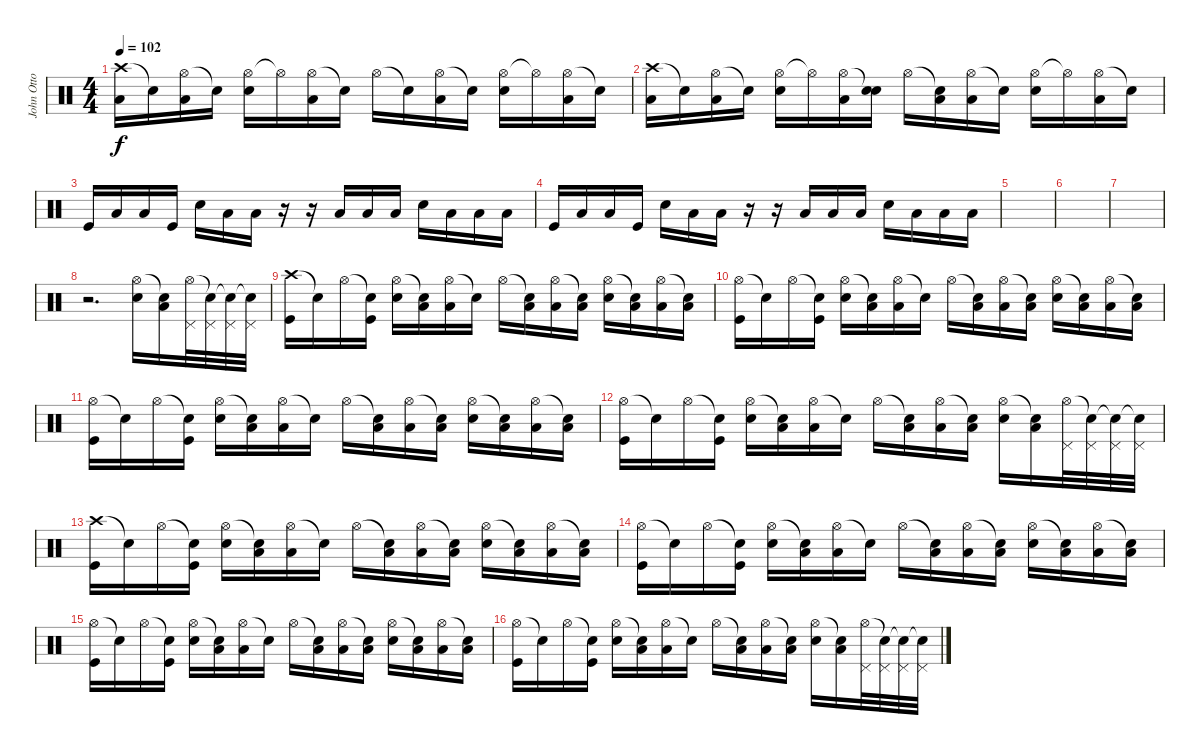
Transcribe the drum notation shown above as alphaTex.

\track ("John Otto (2nd Drums)" "John Otto ") {instrument percussion}
\staff {score}
\articulation defaults
\ts (4 4)
\tempo 102
\clef neutral
\ks c
("Crash high (hit)" "Low Tom (hit)").16{dy f} "Snare (hit)"{t}.16 ("Hi-Hat (open)" "Low Tom (hit)").16 "Snare (hit)"{t}.16 ("Hi-Hat (open)" "Snare (hit) 2").16 "Hi-Hat (open)"{t}.16 ("Hi-Hat (open)" "Low Tom (hit)").16 "Snare (hit)"{t}.16 "Hi-Hat (open)".16 "Snare (hit)"{t}.16 ("Hi-Hat (open)" "Low Tom (hit)").16 "Snare (hit)"{t}.16 ("Hi-Hat (open)" "Snare (hit) 2").16 "Hi-Hat (open)"{t}.16 ("Hi-Hat (open)" "Low Tom (hit)").16 "Snare (hit)"{t}.16 |
("Crash high (hit)" "Low Tom (hit)").16 "Snare (hit)"{t}.16 ("Hi-Hat (open)" "Low Tom (hit)").16 "Snare (hit)"{t}.16 ("Hi-Hat (open)" "Snare (hit) 2").16 "Hi-Hat (open)"{t}.16 ("Hi-Hat (open)" "Low Tom (hit)").16 ("Snare (hit)"{t} "Snare (hit) 2").16 "Hi-Hat (open)".16 ("Snare (hit)"{t} "Low Tom (hit)").16 ("Hi-Hat (open)" "Low Tom (hit)").16 "Snare (hit)"{t}.16 ("Hi-Hat (open)" "Snare (hit) 2").16 "Hi-Hat (open)"{t}.16 ("Hi-Hat (open)" "Low Tom (hit)").16 "Snare (hit)"{t}.16 |
"Kick (hit)".16 "Low Tom (hit)".16 "Low Tom (hit)".16 "Kick (hit)".16 "Snare (hit) 2".16 "Low Tom (hit)".16 "Low Tom (hit)".16 r.16 r.16 "Low Tom (hit)".16 "Low Tom (hit)".16 "Low Tom (hit)".16 "Snare (hit) 2".16 "Low Tom (hit)".16 "Low Tom (hit)".16 "Low Tom (hit)".16 |
"Kick (hit)".16 "Low Tom (hit)".16 "Low Tom (hit)".16 "Kick (hit)".16 "Snare (hit) 2".16 "Low Tom (hit)".16 "Low Tom (hit)".16 r.16 r.16 "Low Tom (hit)".16 "Low Tom (hit)".16 "Low Tom (hit)".16 "Snare (hit) 2".16 "Low Tom (hit)".16 "Low Tom (hit)".16 "Low Tom (hit)".16 |
|
|
|
r.2{d} ("Hi-Hat (open)" "Snare (hit) 2").16 ("Snare (hit)"{t} "Low Tom (hit)").16 ("Hi-Hat (open)" "Pedal Hi-Hat (hit)").32 ("Snare (hit)"{t} "Pedal Hi-Hat (hit)").32 ("Snare (hit)"{t} "Pedal Hi-Hat (hit)").32 ("Snare (hit)"{t} "Pedal Hi-Hat (hit)").32 |
("Crash high (hit)" "Kick (hit)").16 "Snare (hit)"{t}.16 "Hi-Hat (open)".16 ("Snare (hit)"{t} "Kick (hit)").16 ("Hi-Hat (open)" "Snare (hit) 2").16 ("Snare (hit)"{t} "Low Tom (hit)").16 ("Hi-Hat (open)" "Low Tom (hit)").16 "Snare (hit)"{t}.16 "Hi-Hat (open)".16 ("Snare (hit)"{t} "Low Tom (hit)").16 ("Hi-Hat (open)" "Low Tom (hit)").16 ("Snare (hit)"{t} "Low Tom (hit)").16 ("Hi-Hat (open)" "Snare (hit) 2").16 ("Snare (hit)"{t} "Low Tom (hit)").16 ("Hi-Hat (open)" "Low Tom (hit)").16 ("Snare (hit)"{t} "Low Tom (hit)").16 |
("Hi-Hat (open)" "Kick (hit)").16 "Snare (hit)"{t}.16 "Hi-Hat (open)".16 ("Snare (hit)"{t} "Kick (hit)").16 ("Hi-Hat (open)" "Snare (hit) 2").16 ("Snare (hit)"{t} "Low Tom (hit)").16 ("Hi-Hat (open)" "Low Tom (hit)").16 "Snare (hit)"{t}.16 "Hi-Hat (open)".16 ("Snare (hit)"{t} "Low Tom (hit)").16 ("Hi-Hat (open)" "Low Tom (hit)").16 ("Snare (hit)"{t} "Low Tom (hit)").16 ("Hi-Hat (open)" "Snare (hit) 2").16 ("Snare (hit)"{t} "Low Tom (hit)").16 ("Hi-Hat (open)" "Low Tom (hit)").16 ("Snare (hit)"{t} "Low Tom (hit)").16 |
("Hi-Hat (open)" "Kick (hit)").16 "Snare (hit)"{t}.16 "Hi-Hat (open)".16 ("Snare (hit)"{t} "Kick (hit)").16 ("Hi-Hat (open)" "Snare (hit) 2").16 ("Snare (hit)"{t} "Low Tom (hit)").16 ("Hi-Hat (open)" "Low Tom (hit)").16 "Snare (hit)"{t}.16 "Hi-Hat (open)".16 ("Snare (hit)"{t} "Low Tom (hit)").16 ("Hi-Hat (open)" "Low Tom (hit)").16 ("Snare (hit)"{t} "Low Tom (hit)").16 ("Hi-Hat (open)" "Snare (hit) 2").16 ("Snare (hit)"{t} "Low Tom (hit)").16 ("Hi-Hat (open)" "Low Tom (hit)").16 ("Snare (hit)"{t} "Low Tom (hit)").16 |
("Hi-Hat (open)" "Kick (hit)").16 "Snare (hit)"{t}.16 "Hi-Hat (open)".16 ("Snare (hit)"{t} "Kick (hit)").16 ("Hi-Hat (open)" "Snare (hit) 2").16 ("Snare (hit)"{t} "Low Tom (hit)").16 ("Hi-Hat (open)" "Low Tom (hit)").16 "Snare (hit)"{t}.16 "Hi-Hat (open)".16 ("Snare (hit)"{t} "Low Tom (hit)").16 ("Hi-Hat (open)" "Low Tom (hit)").16 ("Snare (hit)"{t} "Low Tom (hit)").16 ("Hi-Hat (open)" "Snare (hit) 2").16 ("Snare (hit)"{t} "Low Tom (hit)").16 ("Hi-Hat (open)" "Pedal Hi-Hat (hit)").32 ("Snare (hit)"{t} "Pedal Hi-Hat (hit)").32 ("Snare (hit)"{t} "Pedal Hi-Hat (hit)").32 ("Snare (hit)"{t} "Pedal Hi-Hat (hit)").32 |
("Crash high (hit)" "Kick (hit)").16 "Snare (hit)"{t}.16 "Hi-Hat (open)".16 ("Snare (hit)"{t} "Kick (hit)").16 ("Hi-Hat (open)" "Snare (hit) 2").16 ("Snare (hit)"{t} "Low Tom (hit)").16 ("Hi-Hat (open)" "Low Tom (hit)").16 "Snare (hit)"{t}.16 "Hi-Hat (open)".16 ("Snare (hit)"{t} "Low Tom (hit)").16 ("Hi-Hat (open)" "Low Tom (hit)").16 ("Snare (hit)"{t} "Low Tom (hit)").16 ("Hi-Hat (open)" "Snare (hit) 2").16 ("Snare (hit)"{t} "Low Tom (hit)").16 ("Hi-Hat (open)" "Low Tom (hit)").16 ("Snare (hit)"{t} "Low Tom (hit)").16 |
("Hi-Hat (open)" "Kick (hit)").16 "Snare (hit)"{t}.16 "Hi-Hat (open)".16 ("Snare (hit)"{t} "Kick (hit)").16 ("Hi-Hat (open)" "Snare (hit) 2").16 ("Snare (hit)"{t} "Low Tom (hit)").16 ("Hi-Hat (open)" "Low Tom (hit)").16 "Snare (hit)"{t}.16 "Hi-Hat (open)".16 ("Snare (hit)"{t} "Low Tom (hit)").16 ("Hi-Hat (open)" "Low Tom (hit)").16 ("Snare (hit)"{t} "Low Tom (hit)").16 ("Hi-Hat (open)" "Snare (hit) 2").16 ("Snare (hit)"{t} "Low Tom (hit)").16 ("Hi-Hat (open)" "Low Tom (hit)").16 ("Snare (hit)"{t} "Low Tom (hit)").16 |
("Hi-Hat (open)" "Kick (hit)").16 "Snare (hit)"{t}.16 "Hi-Hat (open)".16 ("Snare (hit)"{t} "Kick (hit)").16 ("Hi-Hat (open)" "Snare (hit) 2").16 ("Snare (hit)"{t} "Low Tom (hit)").16 ("Hi-Hat (open)" "Low Tom (hit)").16 "Snare (hit)"{t}.16 "Hi-Hat (open)".16 ("Snare (hit)"{t} "Low Tom (hit)").16 ("Hi-Hat (open)" "Low Tom (hit)").16 ("Snare (hit)"{t} "Low Tom (hit)").16 ("Hi-Hat (open)" "Snare (hit) 2").16 ("Snare (hit)"{t} "Low Tom (hit)").16 ("Hi-Hat (open)" "Low Tom (hit)").16 ("Snare (hit)"{t} "Low Tom (hit)").16 |
("Hi-Hat (open)" "Kick (hit)").16 "Snare (hit)"{t}.16 "Hi-Hat (open)".16 ("Snare (hit)"{t} "Kick (hit)").16 ("Hi-Hat (open)" "Snare (hit) 2").16 ("Snare (hit)"{t} "Low Tom (hit)").16 ("Hi-Hat (open)" "Low Tom (hit)").16 "Snare (hit)"{t}.16 "Hi-Hat (open)".16 ("Snare (hit)"{t} "Low Tom (hit)").16 ("Hi-Hat (open)" "Low Tom (hit)").16 ("Snare (hit)"{t} "Low Tom (hit)").16 ("Hi-Hat (open)" "Snare (hit) 2").16 ("Snare (hit)"{t} "Low Tom (hit)").16 ("Hi-Hat (open)" "Pedal Hi-Hat (hit)").32 ("Snare (hit)"{t} "Pedal Hi-Hat (hit)").32 ("Snare (hit)"{t} "Pedal Hi-Hat (hit)").32 ("Snare (hit)"{t} "Pedal Hi-Hat (hit)").32
